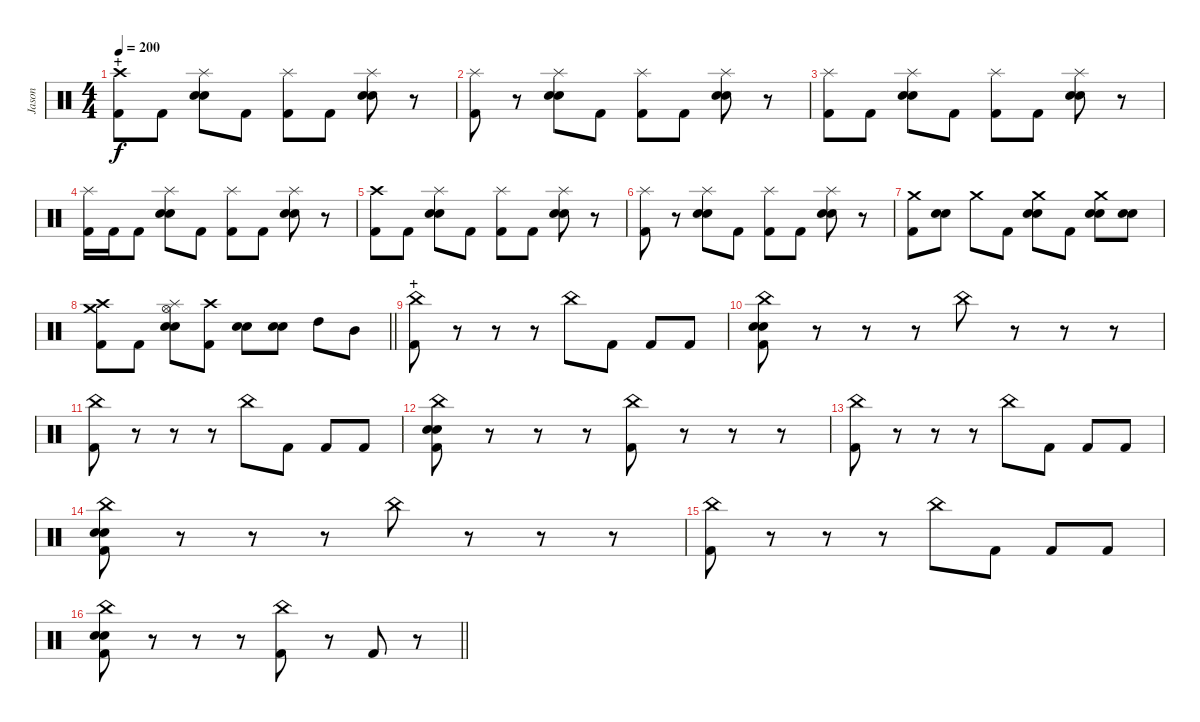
\track ("Jason" "Jason") {instrument percussion}
\staff {score}
\articulation defaults
\ts (4 4)
\section ("" "+")
\tempo 200
\clef neutral
\ks c
("Crash high (hit)" "Kick (hit) 2").8{dy f} "Kick (hit) 2".8 ("Splash (hit)" "Electric Snare (hit)" "Snare (hit) 2").8 "Kick (hit) 2".8 ("Splash (hit)" "Kick (hit) 2").8 "Kick (hit) 2".8 ("Splash (hit)" "Electric Snare (hit)" "Snare (hit) 2").8 r.8 |
("Splash (hit)" "Kick (hit) 2").8 r.8 ("Splash (hit)" "Electric Snare (hit)" "Snare (hit) 2").8 "Kick (hit) 2".8 ("Splash (hit)" "Kick (hit) 2").8 "Kick (hit) 2".8 ("Splash (hit)" "Electric Snare (hit)" "Snare (hit) 2").8 r.8 |
("Splash (hit)" "Kick (hit) 2").8 "Kick (hit) 2".8 ("Splash (hit)" "Electric Snare (hit)" "Snare (hit) 2").8 "Kick (hit) 2".8 ("Splash (hit)" "Kick (hit) 2").8 "Kick (hit) 2".8 ("Splash (hit)" "Electric Snare (hit)" "Snare (hit) 2").8 r.8 |
("Splash (hit)" "Kick (hit) 2").16 "Kick (hit) 2".16 "Kick (hit) 2".8 ("Splash (hit)" "Electric Snare (hit)" "Snare (hit) 2").8 "Kick (hit) 2".8 ("Splash (hit)" "Kick (hit) 2").8 "Kick (hit) 2".8 ("Splash (hit)" "Electric Snare (hit)" "Snare (hit) 2").8 r.8 |
("Crash high (hit)" "Kick (hit) 2").8 "Kick (hit) 2".8 ("Splash (hit)" "Electric Snare (hit)" "Snare (hit) 2").8 "Kick (hit) 2".8 ("Splash (hit)" "Kick (hit) 2").8 "Kick (hit) 2".8 ("Splash (hit)" "Electric Snare (hit)" "Snare (hit) 2").8 r.8 |
("Splash (hit)" "Kick (hit) 2").8 r.8 ("Splash (hit)" "Electric Snare (hit)" "Snare (hit) 2").8 "Kick (hit) 2".8 ("Splash (hit)" "Kick (hit) 2").8 "Kick (hit) 2".8 ("Splash (hit)" "Electric Snare (hit)" "Snare (hit) 2").8 r.8 |
("Crash medium (hit)" "Kick (hit) 2").8 ("Electric Snare (hit)" "Snare (hit) 2").8 "Crash medium (hit)".8 "Kick (hit) 2".8 ("Crash medium (hit)" "Electric Snare (hit)" "Snare (hit) 2").8 "Kick (hit) 2".8 ("Crash medium (hit)" "Electric Snare (hit)" "Snare (hit) 2").8 ("Electric Snare (hit)" "Snare (hit) 2").8 |
\barLineRight lightlight
("Crash medium (hit)" "Crash high (hit)" "Kick (hit) 2").8 "Kick (hit) 2".8 ("Splash (hit)" "Hi-Hat (open)" "Electric Snare (hit)" "Snare (hit) 2").8 ("Crash high (hit)" "Kick (hit) 2").8 ("Electric Snare (hit)" "Snare (hit) 2").8 ("Electric Snare (hit)" "Snare (hit) 2").8 "High Tom (hit)".8 "Mid Tom (hit)".8 |
\section ("" "+")
("China (hit)" "Kick (hit) 2").8 r.8 r.8 r.8 "China (hit)".8 "Kick (hit) 2".8 "Kick (hit) 2".8 "Kick (hit) 2".8 |
("China (hit)" "Electric Snare (hit)" "Snare (hit) 2" "Kick (hit) 2").8 r.8 r.8 r.8 "China (hit)".8 r.8 r.8 r.8 |
("China (hit)" "Kick (hit) 2").8 r.8 r.8 r.8 "China (hit)".8 "Kick (hit) 2".8 "Kick (hit) 2".8 "Kick (hit) 2".8 |
("China (hit)" "Electric Snare (hit)" "Snare (hit) 2" "Kick (hit) 2").8 r.8 r.8 r.8 ("China (hit)" "Kick (hit) 2").8 r.8 r.8 r.8 |
("China (hit)" "Kick (hit) 2").8 r.8 r.8 r.8 "China (hit)".8 "Kick (hit) 2".8 "Kick (hit) 2".8 "Kick (hit) 2".8 |
("China (hit)" "Electric Snare (hit)" "Snare (hit) 2" "Kick (hit) 2").8 r.8 r.8 r.8 "China (hit)".8 r.8 r.8 r.8 |
("China (hit)" "Kick (hit) 2").8 r.8 r.8 r.8 "China (hit)".8 "Kick (hit) 2".8 "Kick (hit) 2".8 "Kick (hit) 2".8 |
\barLineRight lightlight
("China (hit)" "Electric Snare (hit)" "Snare (hit) 2" "Kick (hit) 2").8 r.8 r.8 r.8 ("China (hit)" "Kick (hit) 2").8 r.8 "Kick (hit) 2".8 r.8
